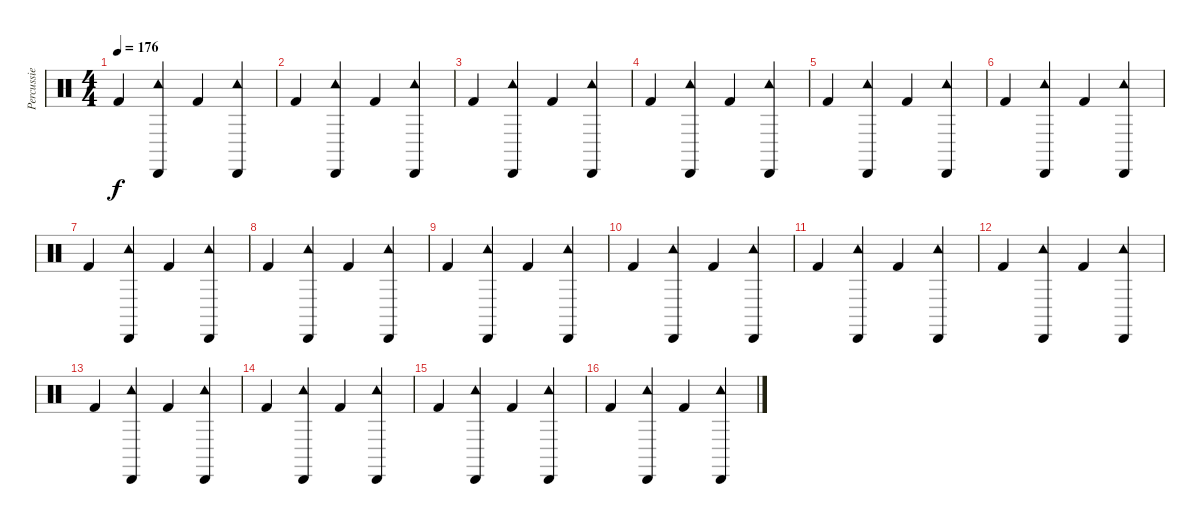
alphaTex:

\track ("Percussie" "Percussie") {instrument percussion}
\staff {score}
\articulation defaults
\ts (4 4)
\tempo 176
\clef neutral
\ks c "Kick (hit) 2".4{dy f}
("Cabasa (hit)" "Tambourine (hit)").4 "Kick (hit) 2".4 ("Cabasa (hit)" "Tambourine (hit)").4 |
"Kick (hit) 2".4 ("Cabasa (hit)" "Tambourine (hit)").4 "Kick (hit) 2".4 ("Cabasa (hit)" "Tambourine (hit)").4 |
"Kick (hit) 2".4 ("Cabasa (hit)" "Tambourine (hit)").4 "Kick (hit) 2".4 ("Cabasa (hit)" "Tambourine (hit)").4 |
"Kick (hit) 2".4 ("Cabasa (hit)" "Tambourine (hit)").4 "Kick (hit) 2".4 ("Cabasa (hit)" "Tambourine (hit)").4 |
"Kick (hit) 2".4 ("Cabasa (hit)" "Tambourine (hit)").4 "Kick (hit) 2".4 ("Cabasa (hit)" "Tambourine (hit)").4 |
"Kick (hit) 2".4 ("Cabasa (hit)" "Tambourine (hit)").4 "Kick (hit) 2".4 ("Cabasa (hit)" "Tambourine (hit)").4 |
"Kick (hit) 2".4 ("Cabasa (hit)" "Tambourine (hit)").4 "Kick (hit) 2".4 ("Cabasa (hit)" "Tambourine (hit)").4 |
"Kick (hit) 2".4 ("Cabasa (hit)" "Tambourine (hit)").4 "Kick (hit) 2".4 ("Cabasa (hit)" "Tambourine (hit)").4 |
"Kick (hit) 2".4 ("Cabasa (hit)" "Tambourine (hit)").4 "Kick (hit) 2".4 ("Cabasa (hit)" "Tambourine (hit)").4 |
"Kick (hit) 2".4 ("Cabasa (hit)" "Tambourine (hit)").4 "Kick (hit) 2".4 ("Cabasa (hit)" "Tambourine (hit)").4 |
"Kick (hit) 2".4 ("Cabasa (hit)" "Tambourine (hit)").4 "Kick (hit) 2".4 ("Cabasa (hit)" "Tambourine (hit)").4 |
"Kick (hit) 2".4 ("Cabasa (hit)" "Tambourine (hit)").4 "Kick (hit) 2".4 ("Cabasa (hit)" "Tambourine (hit)").4 |
"Kick (hit) 2".4 ("Cabasa (hit)" "Tambourine (hit)").4 "Kick (hit) 2".4 ("Cabasa (hit)" "Tambourine (hit)").4 |
"Kick (hit) 2".4 ("Cabasa (hit)" "Tambourine (hit)").4 "Kick (hit) 2".4 ("Cabasa (hit)" "Tambourine (hit)").4 |
"Kick (hit) 2".4 ("Cabasa (hit)" "Tambourine (hit)").4 "Kick (hit) 2".4 ("Cabasa (hit)" "Tambourine (hit)").4 |
"Kick (hit) 2".4 ("Cabasa (hit)" "Tambourine (hit)").4 "Kick (hit) 2".4 ("Cabasa (hit)" "Tambourine (hit)").4
